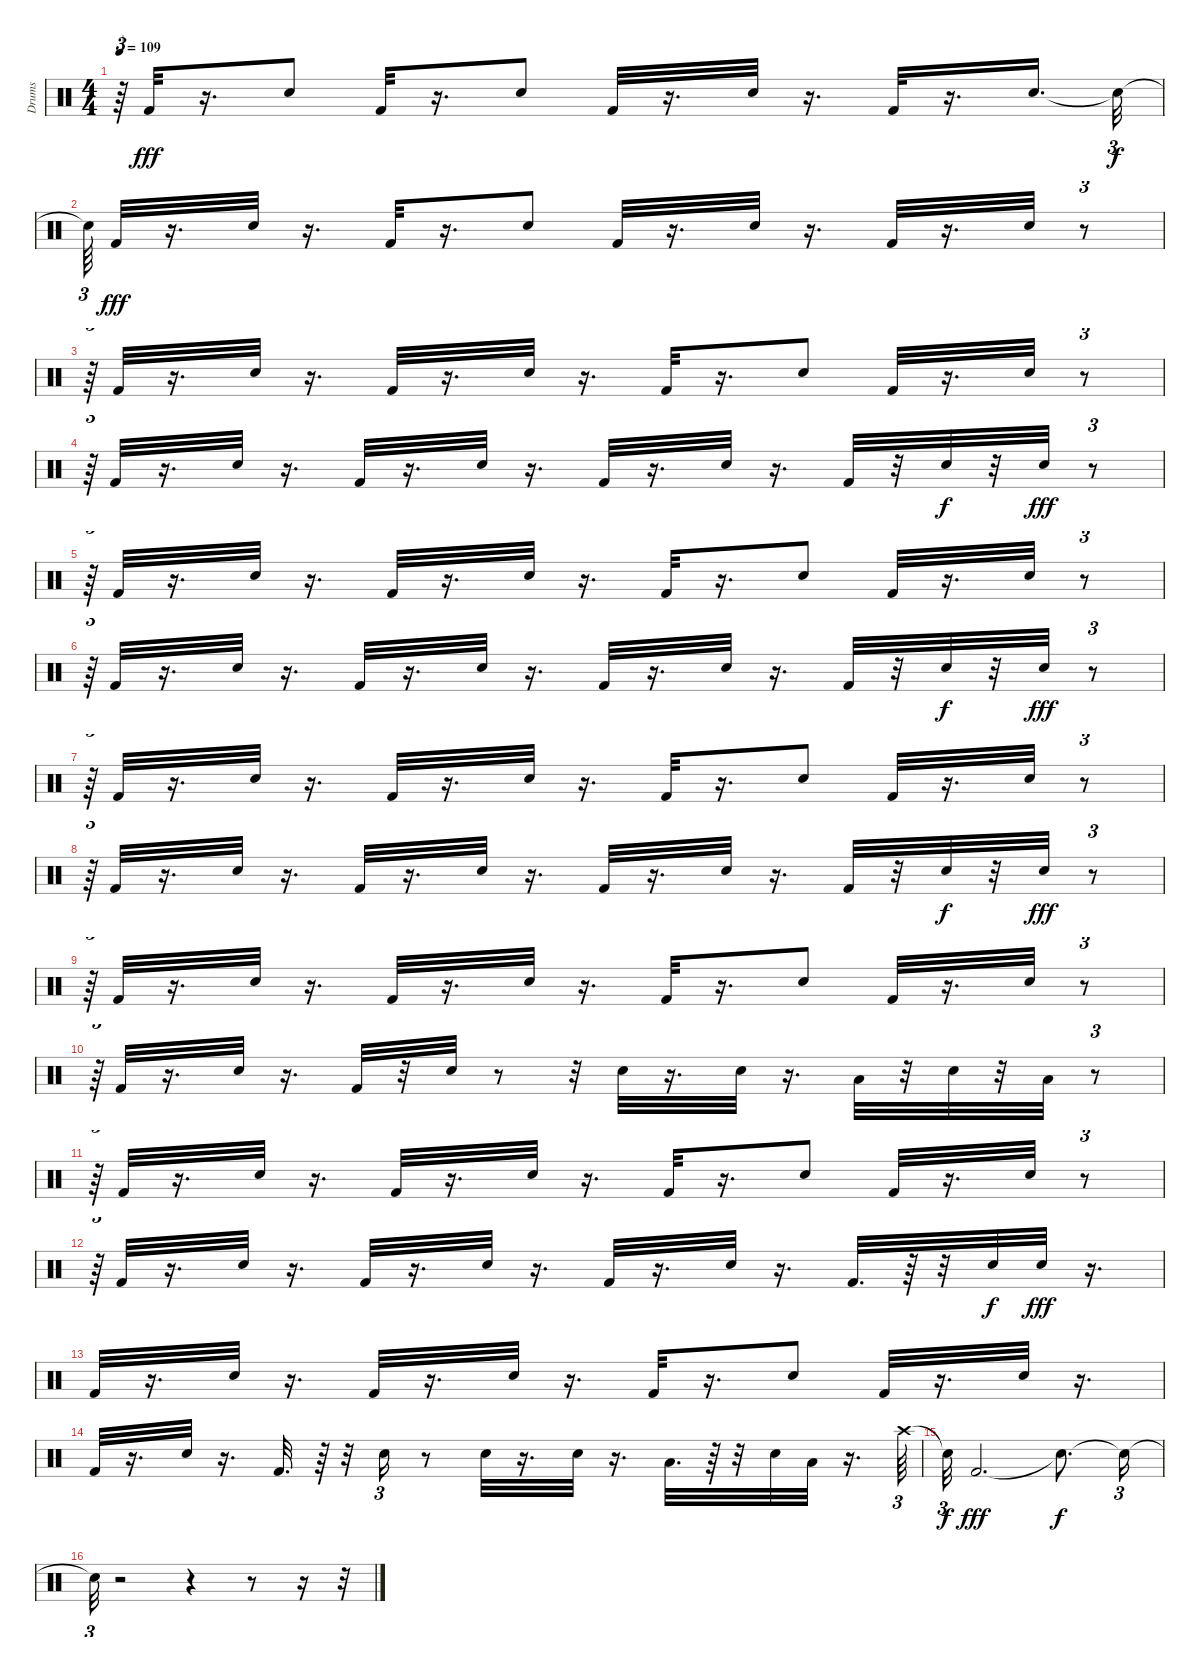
\track ("Drums" "Drums") {instrument percussion}
\staff {score}
\articulation defaults
\ts (4 4)
\tempo 109
\clef neutral
\ks c
r.64{tu (3 2) dy fff} "Kick (hit) 2".32 r.16{d} "Snare (hit) 2".8 "Kick (hit) 2".32 r.16{d} "Snare (hit) 2".8 "Kick (hit) 2".32 r.16{d} "Snare (hit) 2".32 r.16{d} "Kick (hit) 2".32 r.16{d} "Snare (hit) 2".16{d} "Snare (hit)"{t}.32{tu (3 2) dy f} |
"Snare (hit)"{t}.64{tu (3 2)} "Kick (hit) 2".32{dy fff} r.16{d} "Snare (hit) 2".32 r.16{d} "Kick (hit) 2".32 r.16{d} "Snare (hit) 2".8 "Kick (hit) 2".32 r.16{d} "Snare (hit) 2".32 r.16{d} "Kick (hit) 2".32 r.16{d} "Snare (hit) 2".32 r.8{tu (3 2)} |
r.64{tu (3 2)} "Kick (hit) 2".32 r.16{d} "Snare (hit) 2".32 r.16{d} "Kick (hit) 2".32 r.16{d} "Snare (hit) 2".32 r.16{d} "Kick (hit) 2".32 r.16{d} "Snare (hit) 2".8 "Kick (hit) 2".32 r.16{d} "Snare (hit) 2".32 r.8{tu (3 2)} |
r.64{tu (3 2)} "Kick (hit) 2".32 r.16{d} "Snare (hit) 2".32 r.16{d} "Kick (hit) 2".32 r.16{d} "Snare (hit) 2".32 r.16{d} "Kick (hit) 2".32 r.16{d} "Snare (hit) 2".32 r.16{d} "Kick (hit) 2".32 r.32 "Snare (hit) 2".32{dy f} r.32 "Snare (hit) 2".32{dy fff} r.8{tu (3 2)} |
r.64{tu (3 2)} "Kick (hit) 2".32 r.16{d} "Snare (hit) 2".32 r.16{d} "Kick (hit) 2".32 r.16{d} "Snare (hit) 2".32 r.16{d} "Kick (hit) 2".32 r.16{d} "Snare (hit) 2".8 "Kick (hit) 2".32 r.16{d} "Snare (hit) 2".32 r.8{tu (3 2)} |
r.64{tu (3 2)} "Kick (hit) 2".32 r.16{d} "Snare (hit) 2".32 r.16{d} "Kick (hit) 2".32 r.16{d} "Snare (hit) 2".32 r.16{d} "Kick (hit) 2".32 r.16{d} "Snare (hit) 2".32 r.16{d} "Kick (hit) 2".32 r.32 "Snare (hit) 2".32{dy f} r.32 "Snare (hit) 2".32{dy fff} r.8{tu (3 2)} |
r.64{tu (3 2)} "Kick (hit) 2".32 r.16{d} "Snare (hit) 2".32 r.16{d} "Kick (hit) 2".32 r.16{d} "Snare (hit) 2".32 r.16{d} "Kick (hit) 2".32 r.16{d} "Snare (hit) 2".8 "Kick (hit) 2".32 r.16{d} "Snare (hit) 2".32 r.8{tu (3 2)} |
r.64{tu (3 2)} "Kick (hit) 2".32 r.16{d} "Snare (hit) 2".32 r.16{d} "Kick (hit) 2".32 r.16{d} "Snare (hit) 2".32 r.16{d} "Kick (hit) 2".32 r.16{d} "Snare (hit) 2".32 r.16{d} "Kick (hit) 2".32 r.32 "Snare (hit) 2".32{dy f} r.32 "Snare (hit) 2".32{dy fff} r.8{tu (3 2)} |
r.64{tu (3 2)} "Kick (hit) 2".32 r.16{d} "Snare (hit) 2".32 r.16{d} "Kick (hit) 2".32 r.16{d} "Snare (hit) 2".32 r.16{d} "Kick (hit) 2".32 r.16{d} "Snare (hit) 2".8 "Kick (hit) 2".32 r.16{d} "Snare (hit) 2".32 r.8{tu (3 2)} |
r.64{tu (3 2)} "Kick (hit) 2".32 r.16{d} "Snare (hit) 2".32 r.16{d} "Kick (hit) 2".32 r.32 "Snare (hit) 2".32 r.8 r.32 "Snare (hit) 2".32 r.16{d} "Snare (hit) 2".32 r.16{d} "Low Floor Tom (hit)".32 r.32 "Snare (hit) 2".32 r.32 "Low Tom (hit)".32 r.8{tu (3 2)} |
r.64{tu (3 2)} "Kick (hit) 2".32 r.16{d} "Snare (hit) 2".32 r.16{d} "Kick (hit) 2".32 r.16{d} "Snare (hit) 2".32 r.16{d} "Kick (hit) 2".32 r.16{d} "Snare (hit) 2".8 "Kick (hit) 2".32 r.16{d} "Snare (hit) 2".32 r.8{tu (3 2)} |
r.64{tu (3 2)} "Kick (hit) 2".32 r.16{d} "Snare (hit) 2".32 r.16{d} "Kick (hit) 2".32 r.16{d} "Snare (hit) 2".32 r.16{d} "Kick (hit) 2".32 r.16{d} "Snare (hit) 2".32 r.16{d} "Kick (hit) 2".32{d} r.64 r.32 "Snare (hit) 2".32{dy f} "Snare (hit) 2".32{dy fff} r.16{d} |
"Kick (hit) 2".32 r.16{d} "Snare (hit) 2".32 r.16{d} "Kick (hit) 2".32 r.16{d} "Snare (hit) 2".32 r.16{d} "Kick (hit) 2".32 r.16{d} "Snare (hit) 2".8 "Kick (hit) 2".32 r.16{d} "Snare (hit) 2".32 r.16{d} |
"Kick (hit) 2".32 r.16{d} "Snare (hit) 2".32 r.16{d} "Kick (hit) 2".32{d} r.64 r.32 "Snare (hit) 2".16{tu (3 2)} r.8 "Snare (hit) 2".32 r.16{d} "Snare (hit) 2".32 r.16{d} "Low Floor Tom (hit)".32{d} r.64 r.32 "Snare (hit) 2".32 "Low Tom (hit)".32 r.16{d} "Crash high (hit)".64{tu (3 2)} |
"Snare (hit)"{t}.32{tu (3 2) dy f} "Kick (hit) 2".2{d dy fff} "Snare (hit)"{t}.8{d dy f} "Snare (hit)"{t}.16{tu (3 2)} |
"Snare (hit)"{t}.32{tu (3 2)} r.2 r.4 r.8 r.16 r.32
